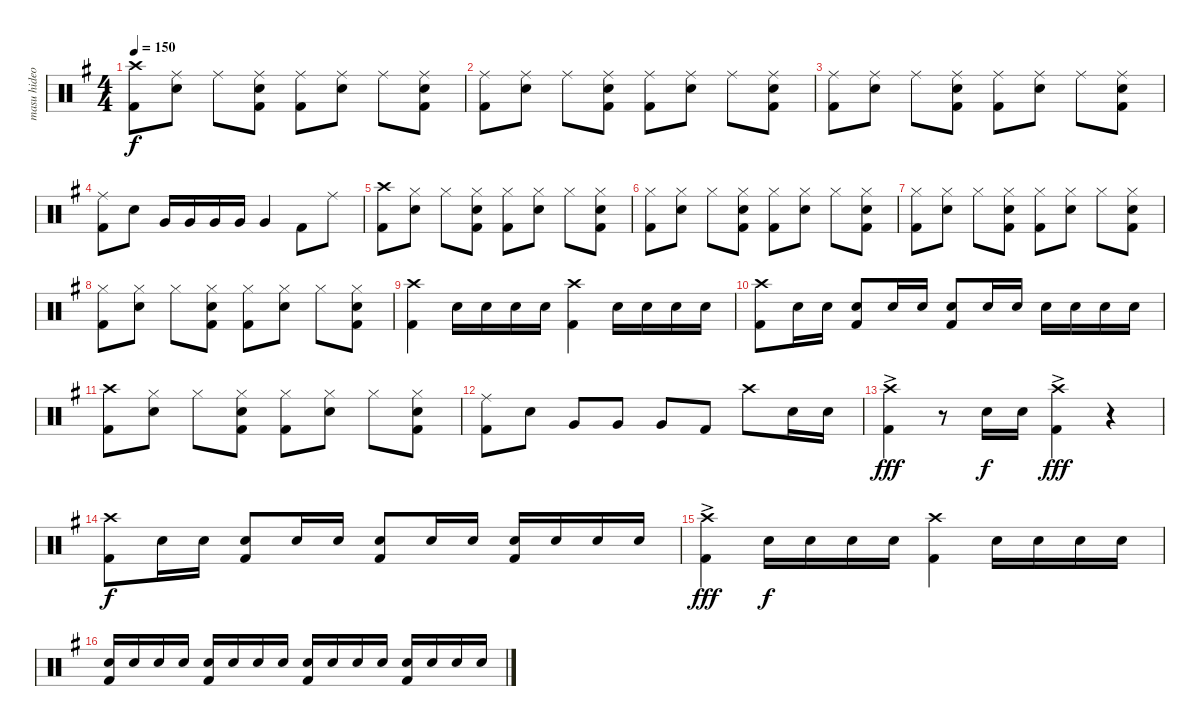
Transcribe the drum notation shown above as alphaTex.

\track ("masu hideo - drum" "masu hideo") {instrument percussion}
\staff {score}
\articulation defaults
\ts (4 4)
\tempo 150
\clef neutral
\ks g
("Crash high (hit)" "Kick (hit) 2").8{dy f} ("Ride (middle)" "Electric Snare (hit)").8 "Ride (middle)".8 ("Ride (middle)" "Electric Snare (hit)" "Kick (hit) 2").8 ("Ride (middle)" "Kick (hit) 2").8 ("Ride (middle)" "Electric Snare (hit)").8 "Ride (middle)".8 ("Ride (middle)" "Electric Snare (hit)" "Kick (hit) 2").8 |
("Ride (middle)" "Kick (hit) 2").8 ("Ride (middle)" "Electric Snare (hit)").8 "Ride (middle)".8 ("Ride (middle)" "Electric Snare (hit)" "Kick (hit) 2").8 ("Ride (middle)" "Kick (hit) 2").8 ("Ride (middle)" "Electric Snare (hit)").8 "Ride (middle)".8 ("Ride (middle)" "Electric Snare (hit)" "Kick (hit) 2").8 |
("Ride (middle)" "Kick (hit) 2").8 ("Ride (middle)" "Electric Snare (hit)").8 "Ride (middle)".8 ("Ride (middle)" "Electric Snare (hit)" "Kick (hit) 2").8 ("Ride (middle)" "Kick (hit) 2").8 ("Ride (middle)" "Electric Snare (hit)").8 "Ride (middle)".8 ("Ride (middle)" "Electric Snare (hit)" "Kick (hit) 2").8 |
("Ride (middle)" "Kick (hit) 2").8 "Electric Snare (hit)".8 "Very Low Tom (hit)".16 "Very Low Tom (hit)".16 "Very Low Tom (hit)".16 "Very Low Tom (hit)".16 "Very Low Tom (hit)".4 "Kick (hit) 2".8 "Ride (middle)".8 |
("Crash high (hit)" "Kick (hit) 2").8 ("Hi-Hat (closed)" "Electric Snare (hit)").8 "Hi-Hat (closed)".8 ("Hi-Hat (closed)" "Electric Snare (hit)" "Kick (hit) 2").8 ("Hi-Hat (closed)" "Kick (hit) 2").8 ("Hi-Hat (closed)" "Electric Snare (hit)").8 "Hi-Hat (closed)".8 ("Hi-Hat (closed)" "Electric Snare (hit)" "Kick (hit) 2").8 |
("Hi-Hat (closed)" "Kick (hit) 2").8 ("Hi-Hat (closed)" "Electric Snare (hit)").8 "Hi-Hat (closed)".8 ("Hi-Hat (closed)" "Electric Snare (hit)" "Kick (hit) 2").8 ("Hi-Hat (closed)" "Kick (hit) 2").8 ("Hi-Hat (closed)" "Electric Snare (hit)").8 "Hi-Hat (closed)".8 ("Hi-Hat (closed)" "Electric Snare (hit)" "Kick (hit) 2").8 |
("Hi-Hat (closed)" "Kick (hit) 2").8 ("Hi-Hat (closed)" "Electric Snare (hit)").8 "Hi-Hat (closed)".8 ("Hi-Hat (closed)" "Electric Snare (hit)" "Kick (hit) 2").8 ("Hi-Hat (closed)" "Kick (hit) 2").8 ("Hi-Hat (closed)" "Electric Snare (hit)").8 "Hi-Hat (closed)".8 ("Hi-Hat (closed)" "Electric Snare (hit)" "Kick (hit) 2").8 |
("Hi-Hat (closed)" "Kick (hit) 2").8 ("Hi-Hat (closed)" "Electric Snare (hit)").8 "Hi-Hat (closed)".8 ("Hi-Hat (closed)" "Electric Snare (hit)" "Kick (hit) 2").8 ("Hi-Hat (closed)" "Kick (hit) 2").8 ("Hi-Hat (closed)" "Electric Snare (hit)").8 "Hi-Hat (closed)".8 ("Hi-Hat (closed)" "Electric Snare (hit)" "Kick (hit) 2").8 |
("Crash high (hit)" "Kick (hit) 2").4 "Electric Snare (hit)".16 "Electric Snare (hit)".16 "Electric Snare (hit)".16 "Electric Snare (hit)".16 ("Crash high (hit)" "Kick (hit) 2").4 "Electric Snare (hit)".16 "Electric Snare (hit)".16 "Electric Snare (hit)".16 "Electric Snare (hit)".16 |
("Crash high (hit)" "Kick (hit) 2").8 "Electric Snare (hit)".16 "Electric Snare (hit)".16 ("Electric Snare (hit)" "Kick (hit) 2").8 "Electric Snare (hit)".16 "Electric Snare (hit)".16 ("Electric Snare (hit)" "Kick (hit) 2").8 "Electric Snare (hit)".16 "Electric Snare (hit)".16 "Electric Snare (hit)".16 "Electric Snare (hit)".16 "Electric Snare (hit)".16 "Electric Snare (hit)".16 |
("Crash high (hit)" "Kick (hit) 2").8 ("Hi-Hat (closed)" "Electric Snare (hit)").8 "Hi-Hat (closed)".8 ("Hi-Hat (closed)" "Electric Snare (hit)" "Kick (hit) 2").8 ("Hi-Hat (closed)" "Kick (hit) 2").8 ("Hi-Hat (closed)" "Electric Snare (hit)").8 "Hi-Hat (closed)".8 ("Hi-Hat (closed)" "Electric Snare (hit)" "Kick (hit) 2").8 |
("Ride (middle)" "Kick (hit) 2").8 "Electric Snare (hit)".8 "Very Low Tom (hit)".8 "Very Low Tom (hit)".8 "Very Low Tom (hit)".8 "Kick (hit) 2".8 "Crash high (hit)".8 "Electric Snare (hit)".16 "Electric Snare (hit)".16 |
("Crash high (hit)" "Kick (hit) 2"{ac}).4{dy fff} r.8 "Electric Snare (hit)".16{dy f} "Electric Snare (hit)".16 ("Crash high (hit)" "Kick (hit) 2"{ac}).4{dy fff} r.4 |
("Crash high (hit)" "Kick (hit) 2").8{dy f} "Electric Snare (hit)".16 "Electric Snare (hit)".16 ("Electric Snare (hit)" "Kick (hit) 2").8 "Electric Snare (hit)".16 "Electric Snare (hit)".16 ("Electric Snare (hit)" "Kick (hit) 2").8 "Electric Snare (hit)".16 "Electric Snare (hit)".16 ("Electric Snare (hit)" "Kick (hit) 2").16 "Electric Snare (hit)".16 "Electric Snare (hit)".16 "Electric Snare (hit)".16 |
("Crash high (hit)" "Kick (hit) 2"{ac}).4{dy fff} "Electric Snare (hit)".16{dy f} "Electric Snare (hit)".16 "Electric Snare (hit)".16 "Electric Snare (hit)".16 ("Crash high (hit)" "Kick (hit) 2").4 "Electric Snare (hit)".16 "Electric Snare (hit)".16 "Electric Snare (hit)".16 "Electric Snare (hit)".16 |
("Electric Snare (hit)" "Kick (hit) 2").16 "Electric Snare (hit)".16 "Electric Snare (hit)".16 "Electric Snare (hit)".16 ("Electric Snare (hit)" "Kick (hit) 2").16 "Electric Snare (hit)".16 "Electric Snare (hit)".16 "Electric Snare (hit)".16 ("Electric Snare (hit)" "Kick (hit) 2").16 "Electric Snare (hit)".16 "Electric Snare (hit)".16 "Electric Snare (hit)".16 ("Electric Snare (hit)" "Kick (hit) 2").16 "Electric Snare (hit)".16 "Electric Snare (hit)".16 "Electric Snare (hit)".16
